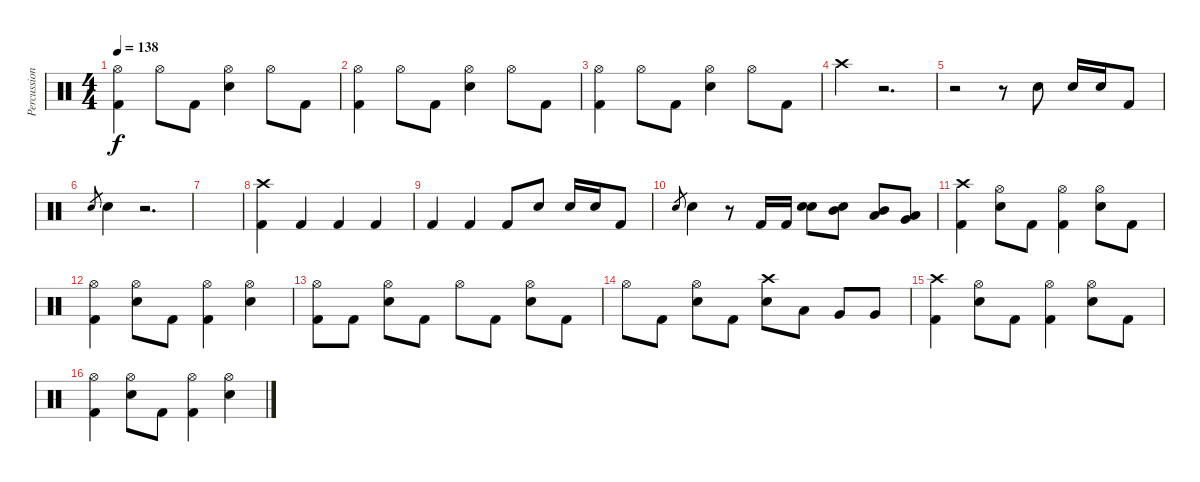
\track ("Percussion" "Percussion") {instrument percussion}
\staff {score}
\articulation defaults
\ts (4 4)
\tempo 138
\clef neutral
\ks c
("Hi-Hat (open)" "Kick (hit) 2").4{dy f} "Hi-Hat (open)".8 "Kick (hit) 2".8 ("Hi-Hat (open)" "Electric Snare (hit)").4 "Hi-Hat (open)".8 "Kick (hit) 2".8 |
("Hi-Hat (open)" "Kick (hit) 2").4 "Hi-Hat (open)".8 "Kick (hit) 2".8 ("Hi-Hat (open)" "Electric Snare (hit)").4 "Hi-Hat (open)".8 "Kick (hit) 2".8 |
("Hi-Hat (open)" "Kick (hit) 2").4 "Hi-Hat (open)".8 "Kick (hit) 2".8 ("Hi-Hat (open)" "Electric Snare (hit)").4 "Hi-Hat (open)".8 "Kick (hit) 2".8 |
"Crash high (hit)".4 r.2{d} |
r.2 r.8 "Electric Snare (hit)".8 "Electric Snare (hit)".16 "Electric Snare (hit)".16 "Kick (hit) 2".8 |
"Electric Snare (hit)".8{gr} "Electric Snare (hit)".4 r.2{d} |
|
("Crash high (hit)" "Kick (hit) 2").4 "Kick (hit) 2".4 "Kick (hit) 2".4 "Kick (hit) 2".4 |
"Kick (hit) 2".4 "Kick (hit) 2".4 "Kick (hit) 2".8 "Electric Snare (hit)".8 "Electric Snare (hit)".16 "Electric Snare (hit)".16 "Kick (hit) 2".8 |
"Electric Snare (hit)".8{gr} "Electric Snare (hit)".4 r.8 "Kick (hit) 2".16 "Kick (hit) 2".16 ("Electric Snare (hit)" "Electric Snare (hit)").8 ("Mid Tom (hit)" "Electric Snare (hit)").8 ("Mid Tom (hit)" "Low Tom (hit)").8 ("Low Tom (hit)" "Very Low Tom (hit)").8 |
("Crash high (hit)" "Kick (hit) 2").4 ("Hi-Hat (open)" "Electric Snare (hit)").8 "Kick (hit) 2".8 ("Hi-Hat (open)" "Kick (hit) 2").4 ("Hi-Hat (open)" "Electric Snare (hit)").8 "Kick (hit) 2".8 |
("Hi-Hat (open)" "Kick (hit) 2").4 ("Hi-Hat (open)" "Electric Snare (hit)").8 "Kick (hit) 2".8 ("Hi-Hat (open)" "Kick (hit) 2").4 ("Hi-Hat (open)" "Electric Snare (hit)").4 |
("Hi-Hat (open)" "Kick (hit) 2").8 "Kick (hit) 2".8 ("Hi-Hat (open)" "Electric Snare (hit)").8 "Kick (hit) 2".8 "Hi-Hat (open)".8 "Kick (hit) 2".8 ("Hi-Hat (open)" "Electric Snare (hit)").8 "Kick (hit) 2".8 |
"Hi-Hat (open)".8 "Kick (hit) 2".8 ("Hi-Hat (open)" "Electric Snare (hit)").8 "Kick (hit) 2".8 ("Crash high (hit)" "Electric Snare (hit)").8 "Low Tom (hit)".8 "Very Low Tom (hit)".8 "Very Low Tom (hit)".8 |
("Crash high (hit)" "Kick (hit) 2").4 ("Hi-Hat (open)" "Electric Snare (hit)").8 "Kick (hit) 2".8 ("Hi-Hat (open)" "Kick (hit) 2").4 ("Hi-Hat (open)" "Electric Snare (hit)").8 "Kick (hit) 2".8 |
("Hi-Hat (open)" "Kick (hit) 2").4 ("Hi-Hat (open)" "Electric Snare (hit)").8 "Kick (hit) 2".8 ("Hi-Hat (open)" "Kick (hit) 2").4 ("Hi-Hat (open)" "Electric Snare (hit)").4
